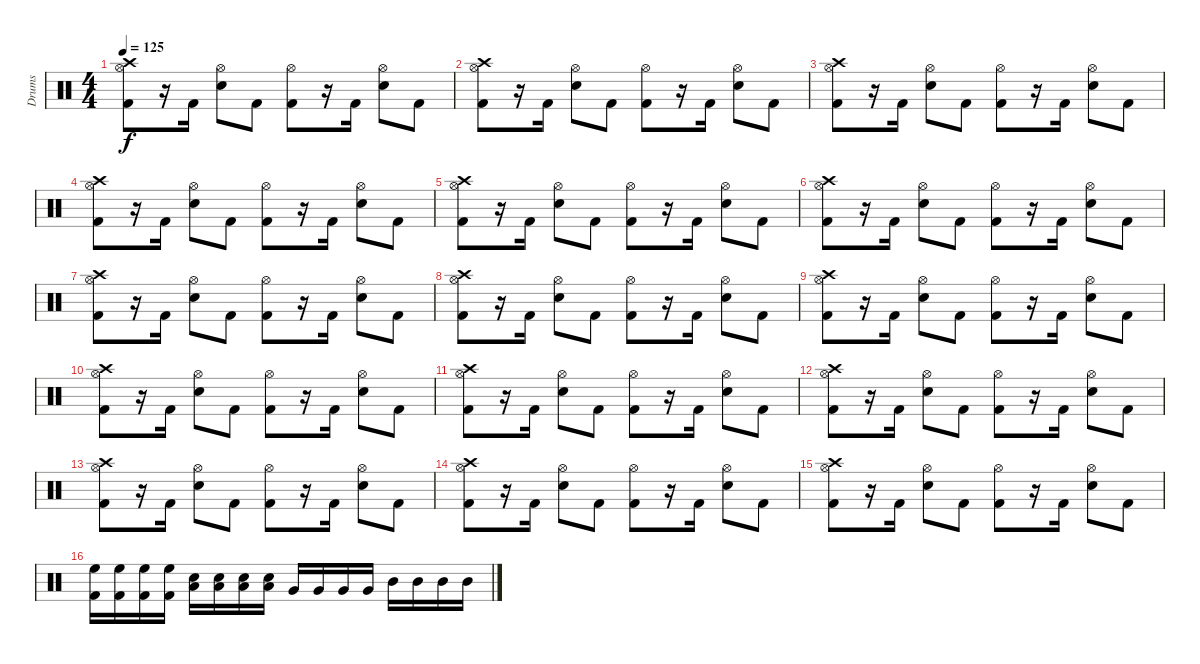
\track ("Drums" "Drums") {instrument percussion}
\staff {score}
\articulation defaults
\ts (4 4)
\tempo 125
\clef neutral
\ks c
("Hi-Hat (open)" "Kick (hit) 2" "Crash high (hit)").8{dy f} r.16 "Kick (hit) 2".16 ("Hi-Hat (open)" "Snare (hit) 2").8 "Kick (hit) 2".8 ("Hi-Hat (open)" "Kick (hit) 2").8 r.16 "Kick (hit) 2".16 ("Hi-Hat (open)" "Snare (hit) 2").8 "Kick (hit) 2".8 |
("Hi-Hat (open)" "Kick (hit) 2" "Crash high (hit)").8 r.16 "Kick (hit) 2".16 ("Hi-Hat (open)" "Snare (hit) 2").8 "Kick (hit) 2".8 ("Hi-Hat (open)" "Kick (hit) 2").8 r.16 "Kick (hit) 2".16 ("Hi-Hat (open)" "Snare (hit) 2").8 "Kick (hit) 2".8 |
("Hi-Hat (open)" "Kick (hit) 2" "Crash high (hit)").8 r.16 "Kick (hit) 2".16 ("Hi-Hat (open)" "Snare (hit) 2").8 "Kick (hit) 2".8 ("Hi-Hat (open)" "Kick (hit) 2").8 r.16 "Kick (hit) 2".16 ("Hi-Hat (open)" "Snare (hit) 2").8 "Kick (hit) 2".8 |
("Hi-Hat (open)" "Kick (hit) 2" "Crash high (hit)").8 r.16 "Kick (hit) 2".16 ("Hi-Hat (open)" "Snare (hit) 2").8 "Kick (hit) 2".8 ("Hi-Hat (open)" "Kick (hit) 2").8 r.16 "Kick (hit) 2".16 ("Hi-Hat (open)" "Snare (hit) 2").8 "Kick (hit) 2".8 |
("Hi-Hat (open)" "Kick (hit) 2" "Crash high (hit)").8 r.16 "Kick (hit) 2".16 ("Hi-Hat (open)" "Snare (hit) 2").8 "Kick (hit) 2".8 ("Hi-Hat (open)" "Kick (hit) 2").8 r.16 "Kick (hit) 2".16 ("Hi-Hat (open)" "Snare (hit) 2").8 "Kick (hit) 2".8 |
("Hi-Hat (open)" "Kick (hit) 2" "Crash high (hit)").8 r.16 "Kick (hit) 2".16 ("Hi-Hat (open)" "Snare (hit) 2").8 "Kick (hit) 2".8 ("Hi-Hat (open)" "Kick (hit) 2").8 r.16 "Kick (hit) 2".16 ("Hi-Hat (open)" "Snare (hit) 2").8 "Kick (hit) 2".8 |
("Hi-Hat (open)" "Kick (hit) 2" "Crash high (hit)").8 r.16 "Kick (hit) 2".16 ("Hi-Hat (open)" "Snare (hit) 2").8 "Kick (hit) 2".8 ("Hi-Hat (open)" "Kick (hit) 2").8 r.16 "Kick (hit) 2".16 ("Hi-Hat (open)" "Snare (hit) 2").8 "Kick (hit) 2".8 |
("Hi-Hat (open)" "Kick (hit) 2" "Crash high (hit)").8 r.16 "Kick (hit) 2".16 ("Hi-Hat (open)" "Snare (hit) 2").8 "Kick (hit) 2".8 ("Hi-Hat (open)" "Kick (hit) 2").8 r.16 "Kick (hit) 2".16 ("Hi-Hat (open)" "Snare (hit) 2").8 "Kick (hit) 2".8 |
("Hi-Hat (open)" "Kick (hit) 2" "Crash high (hit)").8 r.16 "Kick (hit) 2".16 ("Hi-Hat (open)" "Snare (hit) 2").8 "Kick (hit) 2".8 ("Hi-Hat (open)" "Kick (hit) 2").8 r.16 "Kick (hit) 2".16 ("Hi-Hat (open)" "Snare (hit) 2").8 "Kick (hit) 2".8 |
("Hi-Hat (open)" "Kick (hit) 2" "Crash high (hit)").8 r.16 "Kick (hit) 2".16 ("Hi-Hat (open)" "Snare (hit) 2").8 "Kick (hit) 2".8 ("Hi-Hat (open)" "Kick (hit) 2").8 r.16 "Kick (hit) 2".16 ("Hi-Hat (open)" "Snare (hit) 2").8 "Kick (hit) 2".8 |
("Hi-Hat (open)" "Kick (hit) 2" "Crash high (hit)").8 r.16 "Kick (hit) 2".16 ("Hi-Hat (open)" "Snare (hit) 2").8 "Kick (hit) 2".8 ("Hi-Hat (open)" "Kick (hit) 2").8 r.16 "Kick (hit) 2".16 ("Hi-Hat (open)" "Snare (hit) 2").8 "Kick (hit) 2".8 |
("Hi-Hat (open)" "Kick (hit) 2" "Crash high (hit)").8 r.16 "Kick (hit) 2".16 ("Hi-Hat (open)" "Snare (hit) 2").8 "Kick (hit) 2".8 ("Hi-Hat (open)" "Kick (hit) 2").8 r.16 "Kick (hit) 2".16 ("Hi-Hat (open)" "Snare (hit) 2").8 "Kick (hit) 2".8 |
("Hi-Hat (open)" "Kick (hit) 2" "Crash high (hit)").8 r.16 "Kick (hit) 2".16 ("Hi-Hat (open)" "Snare (hit) 2").8 "Kick (hit) 2".8 ("Hi-Hat (open)" "Kick (hit) 2").8 r.16 "Kick (hit) 2".16 ("Hi-Hat (open)" "Snare (hit) 2").8 "Kick (hit) 2".8 |
("Hi-Hat (open)" "Kick (hit) 2" "Crash high (hit)").8 r.16 "Kick (hit) 2".16 ("Hi-Hat (open)" "Snare (hit) 2").8 "Kick (hit) 2".8 ("Hi-Hat (open)" "Kick (hit) 2").8 r.16 "Kick (hit) 2".16 ("Hi-Hat (open)" "Snare (hit) 2").8 "Kick (hit) 2".8 |
("Hi-Hat (open)" "Kick (hit) 2" "Crash high (hit)").8 r.16 "Kick (hit) 2".16 ("Hi-Hat (open)" "Snare (hit) 2").8 "Kick (hit) 2".8 ("Hi-Hat (open)" "Kick (hit) 2").8 r.16 "Kick (hit) 2".16 ("Hi-Hat (open)" "Snare (hit) 2").8 "Kick (hit) 2".8 |
("Kick (hit) 2" "High Floor Tom (hit)").16 ("Kick (hit) 2" "High Floor Tom (hit)").16 ("Kick (hit) 2" "High Floor Tom (hit)").16 ("Kick (hit) 2" "High Floor Tom (hit)").16 ("Snare (hit) 2" "Low Floor Tom (hit)").16 ("Snare (hit) 2" "Low Floor Tom (hit)").16 ("Snare (hit) 2" "Low Floor Tom (hit)").16 ("Snare (hit) 2" "Low Floor Tom (hit)").16 "Very Low Tom (hit)".16 "Very Low Tom (hit)".16 "Very Low Tom (hit)".16 "Very Low Tom (hit)".16 "Mid Tom (hit)".16 "Mid Tom (hit)".16 "Mid Tom (hit)".16 "Mid Tom (hit)".16
